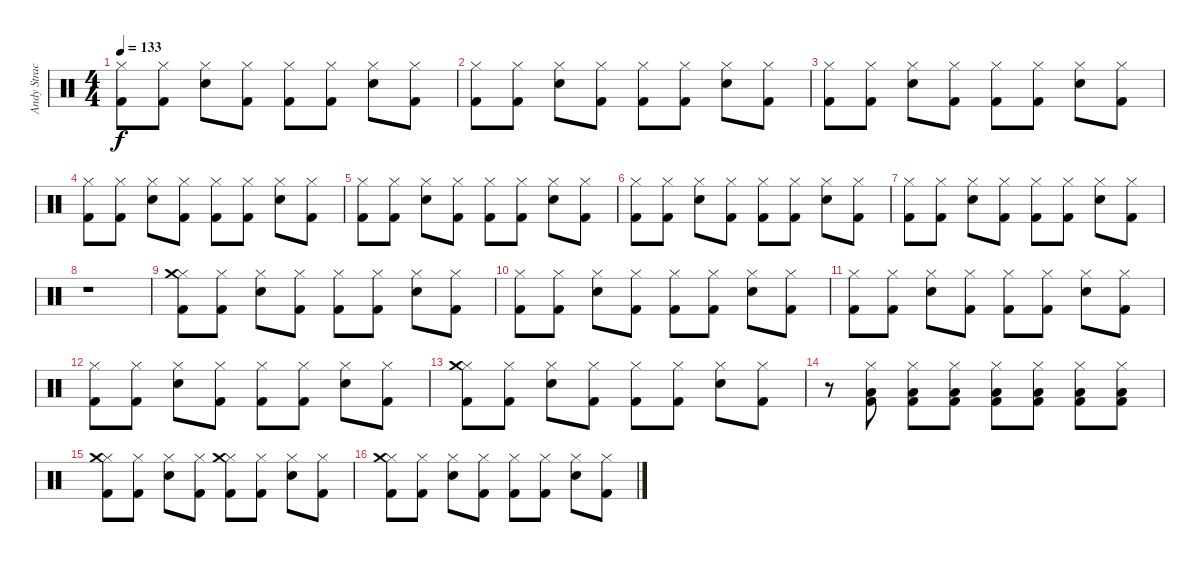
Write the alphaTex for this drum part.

\track ("Andy Strachan" "Andy Strac") {instrument percussion}
\staff {score}
\articulation defaults
\ts (4 4)
\tempo 133
\clef neutral
\ks c
("Hi-Hat (closed)" "Kick (hit) 2").8{dy f} ("Hi-Hat (closed)" "Kick (hit) 2").8 ("Electric Snare (hit)" "Hi-Hat (closed)").8 ("Hi-Hat (closed)" "Kick (hit) 2").8 ("Hi-Hat (closed)" "Kick (hit) 2").8 ("Hi-Hat (closed)" "Kick (hit) 2").8 ("Electric Snare (hit)" "Hi-Hat (closed)").8 ("Hi-Hat (closed)" "Kick (hit) 2").8 |
("Hi-Hat (closed)" "Kick (hit) 2").8 ("Hi-Hat (closed)" "Kick (hit) 2").8 ("Electric Snare (hit)" "Hi-Hat (closed)").8 ("Hi-Hat (closed)" "Kick (hit) 2").8 ("Hi-Hat (closed)" "Kick (hit) 2").8 ("Hi-Hat (closed)" "Kick (hit) 2").8 ("Electric Snare (hit)" "Hi-Hat (closed)").8 ("Hi-Hat (closed)" "Kick (hit) 2").8 |
("Hi-Hat (closed)" "Kick (hit) 2").8 ("Hi-Hat (closed)" "Kick (hit) 2").8 ("Electric Snare (hit)" "Hi-Hat (closed)").8 ("Hi-Hat (closed)" "Kick (hit) 2").8 ("Hi-Hat (closed)" "Kick (hit) 2").8 ("Hi-Hat (closed)" "Kick (hit) 2").8 ("Electric Snare (hit)" "Hi-Hat (closed)").8 ("Hi-Hat (closed)" "Kick (hit) 2").8 |
("Hi-Hat (closed)" "Kick (hit) 2").8 ("Hi-Hat (closed)" "Kick (hit) 2").8 ("Electric Snare (hit)" "Hi-Hat (closed)").8 ("Hi-Hat (closed)" "Kick (hit) 2").8 ("Hi-Hat (closed)" "Kick (hit) 2").8 ("Hi-Hat (closed)" "Kick (hit) 2").8 ("Electric Snare (hit)" "Hi-Hat (closed)").8 ("Hi-Hat (closed)" "Kick (hit) 2").8 |
("Hi-Hat (closed)" "Kick (hit) 2").8 ("Hi-Hat (closed)" "Kick (hit) 2").8 ("Electric Snare (hit)" "Hi-Hat (closed)").8 ("Hi-Hat (closed)" "Kick (hit) 2").8 ("Hi-Hat (closed)" "Kick (hit) 2").8 ("Hi-Hat (closed)" "Kick (hit) 2").8 ("Electric Snare (hit)" "Hi-Hat (closed)").8 ("Hi-Hat (closed)" "Kick (hit) 2").8 |
("Hi-Hat (closed)" "Kick (hit) 2").8 ("Hi-Hat (closed)" "Kick (hit) 2").8 ("Electric Snare (hit)" "Hi-Hat (closed)").8 ("Hi-Hat (closed)" "Kick (hit) 2").8 ("Hi-Hat (closed)" "Kick (hit) 2").8 ("Hi-Hat (closed)" "Kick (hit) 2").8 ("Electric Snare (hit)" "Hi-Hat (closed)").8 ("Hi-Hat (closed)" "Kick (hit) 2").8 |
("Hi-Hat (closed)" "Kick (hit) 2").8 ("Hi-Hat (closed)" "Kick (hit) 2").8 ("Electric Snare (hit)" "Hi-Hat (closed)").8 ("Hi-Hat (closed)" "Kick (hit) 2").8 ("Hi-Hat (closed)" "Kick (hit) 2").8 ("Hi-Hat (closed)" "Kick (hit) 2").8 ("Electric Snare (hit)" "Hi-Hat (closed)").8 ("Hi-Hat (closed)" "Kick (hit) 2").8 |
r.1 |
("Hi-Hat (closed)" "Kick (hit) 2" "Crash medium (hit)").8 ("Hi-Hat (closed)" "Kick (hit) 2").8 ("Electric Snare (hit)" "Hi-Hat (closed)").8 ("Hi-Hat (closed)" "Kick (hit) 2").8 ("Hi-Hat (closed)" "Kick (hit) 2").8 ("Hi-Hat (closed)" "Kick (hit) 2").8 ("Electric Snare (hit)" "Hi-Hat (closed)").8 ("Hi-Hat (closed)" "Kick (hit) 2").8 |
("Hi-Hat (closed)" "Kick (hit) 2").8 ("Hi-Hat (closed)" "Kick (hit) 2").8 ("Electric Snare (hit)" "Hi-Hat (closed)").8 ("Hi-Hat (closed)" "Kick (hit) 2").8 ("Hi-Hat (closed)" "Kick (hit) 2").8 ("Hi-Hat (closed)" "Kick (hit) 2").8 ("Electric Snare (hit)" "Hi-Hat (closed)").8 ("Hi-Hat (closed)" "Kick (hit) 2").8 |
("Hi-Hat (closed)" "Kick (hit) 2").8 ("Hi-Hat (closed)" "Kick (hit) 2").8 ("Electric Snare (hit)" "Hi-Hat (closed)").8 ("Hi-Hat (closed)" "Kick (hit) 2").8 ("Hi-Hat (closed)" "Kick (hit) 2").8 ("Hi-Hat (closed)" "Kick (hit) 2").8 ("Electric Snare (hit)" "Hi-Hat (closed)").8 ("Hi-Hat (closed)" "Kick (hit) 2").8 |
("Hi-Hat (closed)" "Kick (hit) 2").8 ("Hi-Hat (closed)" "Kick (hit) 2").8 ("Electric Snare (hit)" "Hi-Hat (closed)").8 ("Hi-Hat (closed)" "Kick (hit) 2").8 ("Hi-Hat (closed)" "Kick (hit) 2").8 ("Hi-Hat (closed)" "Kick (hit) 2").8 ("Electric Snare (hit)" "Hi-Hat (closed)").8 ("Hi-Hat (closed)" "Kick (hit) 2").8 |
("Hi-Hat (closed)" "Kick (hit) 2" "Crash medium (hit)").8 ("Hi-Hat (closed)" "Kick (hit) 2").8 ("Electric Snare (hit)" "Hi-Hat (closed)").8 ("Hi-Hat (closed)" "Kick (hit) 2").8 ("Hi-Hat (closed)" "Kick (hit) 2").8 ("Hi-Hat (closed)" "Kick (hit) 2").8 ("Electric Snare (hit)" "Hi-Hat (closed)").8 ("Hi-Hat (closed)" "Kick (hit) 2").8 |
r.8 ("Hi-Hat (closed)" "Kick (hit) 2" "Low Floor Tom (hit)").8 ("Hi-Hat (closed)" "Kick (hit) 2" "Low Floor Tom (hit)").8 ("Hi-Hat (closed)" "Kick (hit) 2" "Low Floor Tom (hit)").8 ("Hi-Hat (closed)" "Kick (hit) 2" "Low Floor Tom (hit)").8 ("Hi-Hat (closed)" "Kick (hit) 2" "Low Floor Tom (hit)").8 ("Hi-Hat (closed)" "Kick (hit) 2" "Low Floor Tom (hit)").8 ("Hi-Hat (closed)" "Kick (hit) 2" "Low Floor Tom (hit)").8 |
("Hi-Hat (closed)" "Kick (hit) 2" "Crash medium (hit)").8 ("Hi-Hat (closed)" "Kick (hit) 2").8 ("Electric Snare (hit)" "Hi-Hat (closed)").8 ("Hi-Hat (closed)" "Kick (hit) 2").8 ("Hi-Hat (closed)" "Kick (hit) 2" "Crash medium (hit)").8 ("Hi-Hat (closed)" "Kick (hit) 2").8 ("Electric Snare (hit)" "Hi-Hat (closed)").8 ("Hi-Hat (closed)" "Kick (hit) 2").8 |
("Hi-Hat (closed)" "Kick (hit) 2" "Crash medium (hit)").8 ("Hi-Hat (closed)" "Kick (hit) 2").8 ("Electric Snare (hit)" "Hi-Hat (closed)").8 ("Hi-Hat (closed)" "Kick (hit) 2").8 ("Hi-Hat (closed)" "Kick (hit) 2").8 ("Hi-Hat (closed)" "Kick (hit) 2").8 ("Electric Snare (hit)" "Hi-Hat (closed)").8 ("Hi-Hat (closed)" "Kick (hit) 2").8
